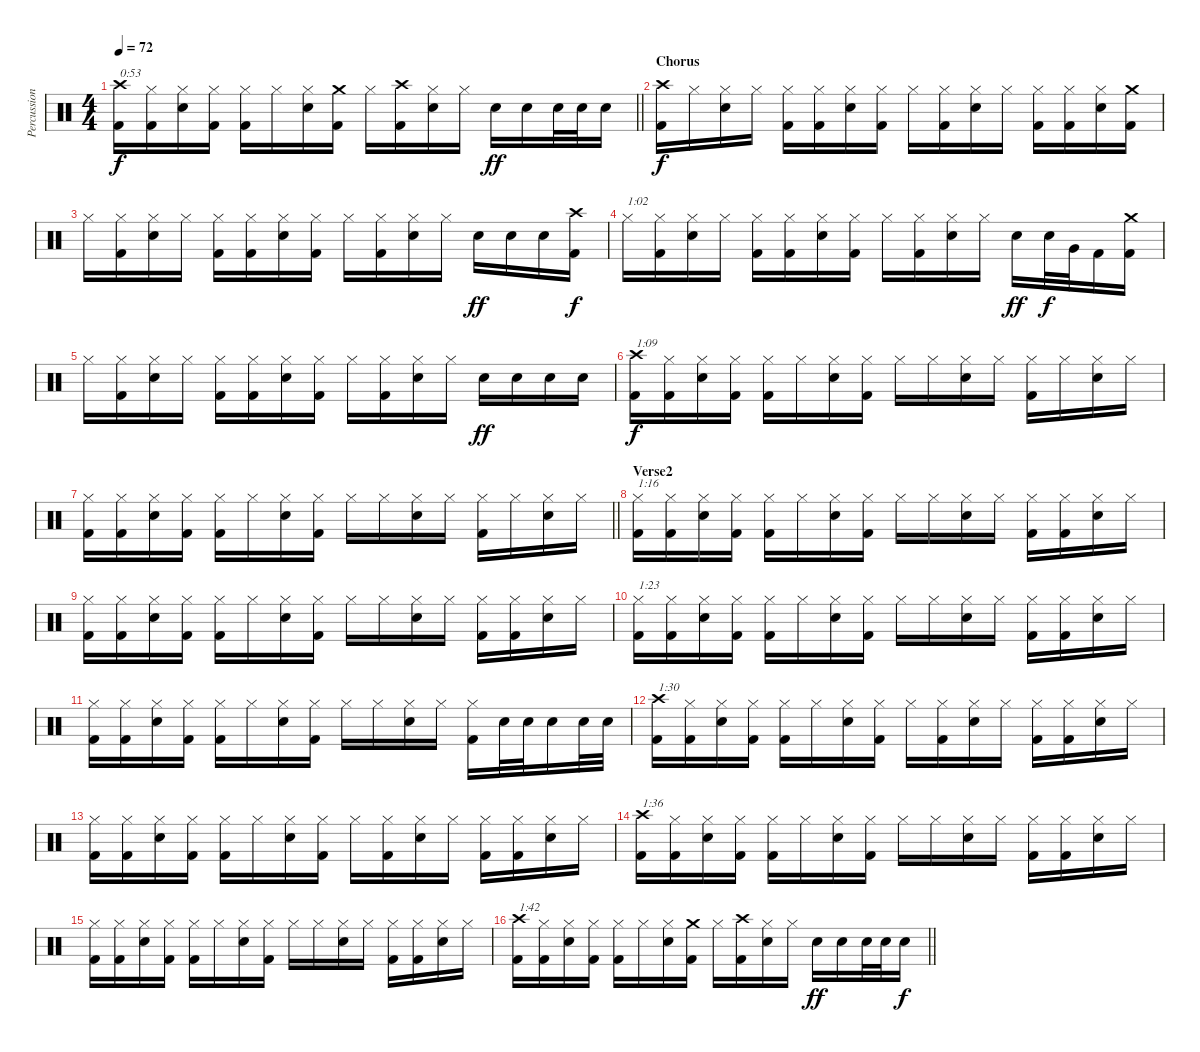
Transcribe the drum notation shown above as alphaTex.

\track ("Percussion" "Percussion") {instrument percussion}
\staff {score}
\articulation defaults
\ts (4 4)
\tempo 72
\clef neutral
\barLineRight lightlight
\ks c
("Crash high (hit)" "Kick (hit) 2").16{txt "0:53" dy f} ("Hi-Hat (closed)" "Kick (hit) 2").16 ("Hi-Hat (closed)" "Snare (hit) 2").16 ("Hi-Hat (closed)" "Kick (hit) 2").16 ("Hi-Hat (closed)" "Kick (hit) 2").16 "Hi-Hat (closed)".16 ("Hi-Hat (closed)" "Snare (hit) 2").16 ("Crash medium (hit)" "Kick (hit) 2").16 "Hi-Hat (closed)".16 ("Crash high (hit)" "Kick (hit) 2").16 ("Hi-Hat (closed)" "Snare (hit) 2").16 "Hi-Hat (closed)".16 "Snare (hit) 2".16{dy ff} "Snare (hit) 2".16 "Snare (hit) 2".32 "Snare (hit) 2".32 "Snare (hit) 2".16 |
\section ("" "Chorus")
("Crash high (hit)" "Kick (hit) 2").16{dy f} "Hi-Hat (closed)".16 ("Hi-Hat (closed)" "Snare (hit) 2").16 "Hi-Hat (closed)".16 ("Hi-Hat (closed)" "Kick (hit) 2").16 ("Hi-Hat (closed)" "Kick (hit) 2").16 ("Hi-Hat (closed)" "Snare (hit) 2").16 ("Hi-Hat (closed)" "Kick (hit) 2").16 "Hi-Hat (closed)".16 ("Hi-Hat (closed)" "Kick (hit) 2").16 ("Hi-Hat (closed)" "Snare (hit) 2").16 "Hi-Hat (closed)".16 ("Hi-Hat (closed)" "Kick (hit) 2").16 ("Hi-Hat (closed)" "Kick (hit) 2").16 ("Hi-Hat (closed)" "Snare (hit) 2").16 ("Crash medium (hit)" "Kick (hit) 2").16 |
"Hi-Hat (closed)".16 ("Hi-Hat (closed)" "Kick (hit) 2").16 ("Hi-Hat (closed)" "Snare (hit) 2").16 "Hi-Hat (closed)".16 ("Hi-Hat (closed)" "Kick (hit) 2").16 ("Hi-Hat (closed)" "Kick (hit) 2").16 ("Hi-Hat (closed)" "Snare (hit) 2").16 ("Hi-Hat (closed)" "Kick (hit) 2").16 "Hi-Hat (closed)".16 ("Hi-Hat (closed)" "Kick (hit) 2").16 ("Hi-Hat (closed)" "Snare (hit) 2").16 "Hi-Hat (closed)".16 "Snare (hit) 2".16{dy ff} "Snare (hit) 2".16 "Snare (hit) 2".16 ("Crash high (hit)" "Kick (hit) 2").16{dy f} |
"Hi-Hat (closed)".16{txt "1:02"} ("Hi-Hat (closed)" "Kick (hit) 2").16 ("Hi-Hat (closed)" "Snare (hit) 2").16 "Hi-Hat (closed)".16 ("Hi-Hat (closed)" "Kick (hit) 2").16 ("Hi-Hat (closed)" "Kick (hit) 2").16 ("Hi-Hat (closed)" "Snare (hit) 2").16 ("Hi-Hat (closed)" "Kick (hit) 2").16 "Hi-Hat (closed)".16 ("Hi-Hat (closed)" "Kick (hit) 2").16 ("Hi-Hat (closed)" "Snare (hit) 2").16 "Hi-Hat (closed)".16 "Snare (hit) 2".16{dy ff} "Snare (hit) 2".32{dy f} "Very Low Tom (hit)".32 "Kick (hit) 2".16 ("Crash medium (hit)" "Kick (hit) 2").16 |
"Hi-Hat (closed)".16 ("Hi-Hat (closed)" "Kick (hit) 2").16 ("Hi-Hat (closed)" "Snare (hit) 2").16 "Hi-Hat (closed)".16 ("Hi-Hat (closed)" "Kick (hit) 2").16 ("Hi-Hat (closed)" "Kick (hit) 2").16 ("Hi-Hat (closed)" "Snare (hit) 2").16 ("Hi-Hat (closed)" "Kick (hit) 2").16 "Hi-Hat (closed)".16 ("Hi-Hat (closed)" "Kick (hit) 2").16 ("Hi-Hat (closed)" "Snare (hit) 2").16 "Hi-Hat (closed)".16 "Snare (hit) 2".16{dy ff} "Snare (hit) 2".16 "Snare (hit) 2".16 "Snare (hit) 2".16 |
("Crash high (hit)" "Kick (hit) 2").16{txt "1:09" dy f} ("Hi-Hat (closed)" "Kick (hit) 2").16 ("Hi-Hat (closed)" "Snare (hit) 2").16 ("Hi-Hat (closed)" "Kick (hit) 2").16 ("Hi-Hat (closed)" "Kick (hit) 2").16 "Hi-Hat (closed)".16 ("Hi-Hat (closed)" "Snare (hit) 2").16 ("Hi-Hat (closed)" "Kick (hit) 2").16 "Hi-Hat (closed)".16 "Hi-Hat (closed)".16 ("Hi-Hat (closed)" "Snare (hit) 2").16 "Hi-Hat (closed)".16 ("Hi-Hat (closed)" "Kick (hit) 2").16 "Hi-Hat (closed)".16 ("Hi-Hat (closed)" "Snare (hit) 2").16 "Hi-Hat (closed)".16 |
\barLineRight lightlight
("Hi-Hat (closed)" "Kick (hit) 2").16 ("Hi-Hat (closed)" "Kick (hit) 2").16 ("Hi-Hat (closed)" "Snare (hit) 2").16 ("Hi-Hat (closed)" "Kick (hit) 2").16 ("Hi-Hat (closed)" "Kick (hit) 2").16 "Hi-Hat (closed)".16 ("Hi-Hat (closed)" "Snare (hit) 2").16 ("Hi-Hat (closed)" "Kick (hit) 2").16 "Hi-Hat (closed)".16 "Hi-Hat (closed)".16 ("Hi-Hat (closed)" "Snare (hit) 2").16 "Hi-Hat (closed)".16 ("Hi-Hat (closed)" "Kick (hit) 2").16 "Hi-Hat (closed)".16 ("Hi-Hat (closed)" "Snare (hit) 2").16 "Hi-Hat (closed)".16 |
\section ("" "Verse2")
("Hi-Hat (closed)" "Kick (hit) 2").16{txt "1:16"} ("Hi-Hat (closed)" "Kick (hit) 2").16 ("Hi-Hat (closed)" "Snare (hit) 2").16 ("Hi-Hat (closed)" "Kick (hit) 2").16 ("Hi-Hat (closed)" "Kick (hit) 2").16 "Hi-Hat (closed)".16 ("Hi-Hat (closed)" "Snare (hit) 2").16 ("Hi-Hat (closed)" "Kick (hit) 2").16 "Hi-Hat (closed)".16 "Hi-Hat (closed)".16 ("Hi-Hat (closed)" "Snare (hit) 2").16 "Hi-Hat (closed)".16 ("Hi-Hat (closed)" "Kick (hit) 2").16 ("Hi-Hat (closed)" "Kick (hit) 2").16 ("Hi-Hat (closed)" "Snare (hit) 2").16 "Hi-Hat (closed)".16 |
("Hi-Hat (closed)" "Kick (hit) 2").16 ("Hi-Hat (closed)" "Kick (hit) 2").16 ("Hi-Hat (closed)" "Snare (hit) 2").16 ("Hi-Hat (closed)" "Kick (hit) 2").16 ("Hi-Hat (closed)" "Kick (hit) 2").16 "Hi-Hat (closed)".16 ("Hi-Hat (closed)" "Snare (hit) 2").16 ("Hi-Hat (closed)" "Kick (hit) 2").16 "Hi-Hat (closed)".16 "Hi-Hat (closed)".16 ("Hi-Hat (closed)" "Snare (hit) 2").16 "Hi-Hat (closed)".16 ("Hi-Hat (closed)" "Kick (hit) 2").16 ("Hi-Hat (closed)" "Kick (hit) 2").16 ("Hi-Hat (closed)" "Snare (hit) 2").16 "Hi-Hat (closed)".16 |
("Hi-Hat (closed)" "Kick (hit) 2").16{txt "1:23"} ("Hi-Hat (closed)" "Kick (hit) 2").16 ("Hi-Hat (closed)" "Snare (hit) 2").16 ("Hi-Hat (closed)" "Kick (hit) 2").16 ("Hi-Hat (closed)" "Kick (hit) 2").16 "Hi-Hat (closed)".16 ("Hi-Hat (closed)" "Snare (hit) 2").16 ("Hi-Hat (closed)" "Kick (hit) 2").16 "Hi-Hat (closed)".16 "Hi-Hat (closed)".16 ("Hi-Hat (closed)" "Snare (hit) 2").16 "Hi-Hat (closed)".16 ("Hi-Hat (closed)" "Kick (hit) 2").16 ("Hi-Hat (closed)" "Kick (hit) 2").16 ("Hi-Hat (closed)" "Snare (hit) 2").16 "Hi-Hat (closed)".16 |
("Hi-Hat (closed)" "Kick (hit) 2").16 ("Hi-Hat (closed)" "Kick (hit) 2").16 ("Hi-Hat (closed)" "Snare (hit) 2").16 ("Hi-Hat (closed)" "Kick (hit) 2").16 ("Hi-Hat (closed)" "Kick (hit) 2").16 "Hi-Hat (closed)".16 ("Hi-Hat (closed)" "Snare (hit) 2").16 ("Hi-Hat (closed)" "Kick (hit) 2").16 "Hi-Hat (closed)".16 "Hi-Hat (closed)".16 ("Hi-Hat (closed)" "Snare (hit) 2").16 "Hi-Hat (closed)".16 ("Hi-Hat (closed)" "Kick (hit) 2").16 "Snare (hit) 2".32 "Snare (hit) 2".32 "Snare (hit) 2".16 "Snare (hit) 2".32 "Snare (hit) 2".32 |
("Crash high (hit)" "Kick (hit) 2").16{txt "1:30"} ("Hi-Hat (closed)" "Kick (hit) 2").16 ("Hi-Hat (closed)" "Snare (hit) 2").16 ("Hi-Hat (closed)" "Kick (hit) 2").16 ("Hi-Hat (closed)" "Kick (hit) 2").16 "Hi-Hat (closed)".16 ("Hi-Hat (closed)" "Snare (hit) 2").16 ("Hi-Hat (closed)" "Kick (hit) 2").16 "Hi-Hat (closed)".16 ("Hi-Hat (closed)" "Kick (hit) 2").16 ("Hi-Hat (closed)" "Snare (hit) 2").16 "Hi-Hat (closed)".16 ("Hi-Hat (closed)" "Kick (hit) 2").16 ("Hi-Hat (closed)" "Kick (hit) 2").16 ("Hi-Hat (closed)" "Snare (hit) 2").16 "Hi-Hat (closed)".16 |
("Hi-Hat (closed)" "Kick (hit) 2").16 ("Hi-Hat (closed)" "Kick (hit) 2").16 ("Hi-Hat (closed)" "Snare (hit) 2").16 ("Hi-Hat (closed)" "Kick (hit) 2").16 ("Hi-Hat (closed)" "Kick (hit) 2").16 "Hi-Hat (closed)".16 ("Hi-Hat (closed)" "Snare (hit) 2").16 ("Hi-Hat (closed)" "Kick (hit) 2").16 "Hi-Hat (closed)".16 ("Hi-Hat (closed)" "Kick (hit) 2").16 ("Hi-Hat (closed)" "Snare (hit) 2").16 "Hi-Hat (closed)".16 ("Hi-Hat (closed)" "Kick (hit) 2").16 ("Hi-Hat (closed)" "Kick (hit) 2").16 ("Hi-Hat (closed)" "Snare (hit) 2").16 "Hi-Hat (closed)".16 |
("Crash high (hit)" "Kick (hit) 2").16{txt "1:36"} ("Hi-Hat (closed)" "Kick (hit) 2").16 ("Hi-Hat (closed)" "Snare (hit) 2").16 ("Hi-Hat (closed)" "Kick (hit) 2").16 ("Hi-Hat (closed)" "Kick (hit) 2").16 "Hi-Hat (closed)".16 ("Hi-Hat (closed)" "Snare (hit) 2").16 ("Hi-Hat (closed)" "Kick (hit) 2").16 "Hi-Hat (closed)".16 "Hi-Hat (closed)".16 ("Hi-Hat (closed)" "Snare (hit) 2").16 "Hi-Hat (closed)".16 ("Hi-Hat (closed)" "Kick (hit) 2").16 ("Hi-Hat (closed)" "Kick (hit) 2").16 ("Hi-Hat (closed)" "Snare (hit) 2").16 "Hi-Hat (closed)".16 |
("Hi-Hat (closed)" "Kick (hit) 2").16 ("Hi-Hat (closed)" "Kick (hit) 2").16 ("Hi-Hat (closed)" "Snare (hit) 2").16 ("Hi-Hat (closed)" "Kick (hit) 2").16 ("Hi-Hat (closed)" "Kick (hit) 2").16 "Hi-Hat (closed)".16 ("Hi-Hat (closed)" "Snare (hit) 2").16 ("Hi-Hat (closed)" "Kick (hit) 2").16 "Hi-Hat (closed)".16 "Hi-Hat (closed)".16 ("Hi-Hat (closed)" "Snare (hit) 2").16 "Hi-Hat (closed)".16 ("Hi-Hat (closed)" "Kick (hit) 2").16 ("Hi-Hat (closed)" "Kick (hit) 2").16 ("Hi-Hat (closed)" "Snare (hit) 2").16 "Hi-Hat (closed)".16 |
\barLineRight lightlight
("Crash high (hit)" "Kick (hit) 2").16{txt "1:42"} ("Hi-Hat (closed)" "Kick (hit) 2").16 ("Hi-Hat (closed)" "Snare (hit) 2").16 ("Hi-Hat (closed)" "Kick (hit) 2").16 ("Hi-Hat (closed)" "Kick (hit) 2").16 "Hi-Hat (closed)".16 ("Hi-Hat (closed)" "Snare (hit) 2").16 ("Crash medium (hit)" "Kick (hit) 2").16 "Hi-Hat (closed)".16 ("Crash high (hit)" "Kick (hit) 2").16 ("Hi-Hat (closed)" "Snare (hit) 2").16 "Hi-Hat (closed)".16 "Snare (hit) 2".16{dy ff} "Snare (hit) 2".16 "Snare (hit) 2".32 "Snare (hit) 2".32 "Snare (hit) 2".16{dy f}
